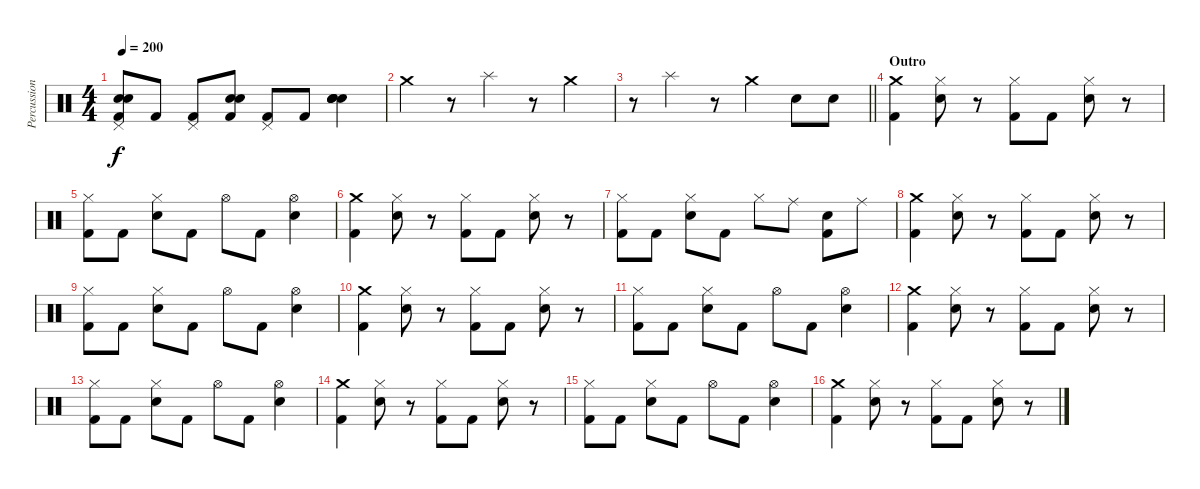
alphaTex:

\track ("Percussion" "Percussion") {instrument percussion}
\staff {score}
\articulation defaults
\ts (4 4)
\tempo 200
\clef neutral
\ks c
("Pedal Hi-Hat (hit)" "Snare (hit) 2" "Electric Snare (hit)" "Kick (hit) 2").8{dy f} "Kick (hit) 2".8 ("Pedal Hi-Hat (hit)" "Kick (hit) 2").8 ("Snare (hit) 2" "Electric Snare (hit)" "Kick (hit) 2").8 ("Pedal Hi-Hat (hit)" "Kick (hit) 2").8 "Kick (hit) 2".8 ("Snare (hit) 2" "Snare (hit) 2" "Electric Snare (hit)" "Snare (hit) 2").4 |
"Crash medium (hit)".4 r.8 "Splash (hit)".4 r.8 "Crash medium (hit)".4 |
\barLineRight lightlight
r.8 "Splash (hit)".4 r.8 "Crash medium (hit)".4 "Snare (hit) 2".8 "Snare (hit) 2".8 |
\section ("" "Outro")
("Crash medium (hit)" "Kick (hit) 2").4 ("Hi-Hat (closed)" "Snare (hit) 2").8 r.8 ("Hi-Hat (closed)" "Kick (hit) 2").8 "Kick (hit) 2".8 ("Hi-Hat (closed)" "Snare (hit) 2").8 r.8 |
("Hi-Hat (closed)" "Kick (hit) 2").8 "Kick (hit) 2".8 ("Hi-Hat (closed)" "Snare (hit) 2").8 "Kick (hit) 2".8 "Hi-Hat (open)".8 "Kick (hit) 2".8 ("Hi-Hat (open)" "Snare (hit) 2").4 |
("Crash medium (hit)" "Kick (hit) 2").4 ("Hi-Hat (closed)" "Snare (hit) 2").8 r.8 ("Hi-Hat (closed)" "Kick (hit) 2").8 "Kick (hit) 2".8 ("Hi-Hat (closed)" "Snare (hit) 2").8 r.8 |
("Hi-Hat (closed)" "Kick (hit) 2").8 "Kick (hit) 2".8 ("Hi-Hat (closed)" "Snare (hit) 2").8 "Kick (hit) 2".8 "Hi-Hat (closed)".8 "Ride (middle)".8 ("Snare (hit) 2" "Kick (hit) 2").8 "Ride (middle)".8 |
("Crash medium (hit)" "Kick (hit) 2").4 ("Hi-Hat (closed)" "Snare (hit) 2").8 r.8 ("Hi-Hat (closed)" "Kick (hit) 2").8 "Kick (hit) 2".8 ("Hi-Hat (closed)" "Snare (hit) 2").8 r.8 |
("Hi-Hat (closed)" "Kick (hit) 2").8 "Kick (hit) 2".8 ("Hi-Hat (closed)" "Snare (hit) 2").8 "Kick (hit) 2".8 "Hi-Hat (open)".8 "Kick (hit) 2".8 ("Hi-Hat (open)" "Snare (hit) 2").4 |
("Crash medium (hit)" "Kick (hit) 2").4 ("Hi-Hat (closed)" "Snare (hit) 2").8 r.8 ("Hi-Hat (closed)" "Kick (hit) 2").8 "Kick (hit) 2".8 ("Hi-Hat (closed)" "Snare (hit) 2").8 r.8 |
("Hi-Hat (closed)" "Kick (hit) 2").8 "Kick (hit) 2".8 ("Hi-Hat (closed)" "Snare (hit) 2").8 "Kick (hit) 2".8 "Hi-Hat (open)".8 "Kick (hit) 2".8 ("Hi-Hat (open)" "Snare (hit) 2").4 |
("Crash medium (hit)" "Kick (hit) 2").4 ("Hi-Hat (closed)" "Snare (hit) 2").8 r.8 ("Hi-Hat (closed)" "Kick (hit) 2").8 "Kick (hit) 2".8 ("Hi-Hat (closed)" "Snare (hit) 2").8 r.8 |
("Hi-Hat (closed)" "Kick (hit) 2").8 "Kick (hit) 2".8 ("Hi-Hat (closed)" "Snare (hit) 2").8 "Kick (hit) 2".8 "Hi-Hat (open)".8 "Kick (hit) 2".8 ("Hi-Hat (open)" "Snare (hit) 2").4 |
("Crash medium (hit)" "Kick (hit) 2").4 ("Hi-Hat (closed)" "Snare (hit) 2").8 r.8 ("Hi-Hat (closed)" "Kick (hit) 2").8 "Kick (hit) 2".8 ("Hi-Hat (closed)" "Snare (hit) 2").8 r.8 |
("Hi-Hat (closed)" "Kick (hit) 2").8 "Kick (hit) 2".8 ("Hi-Hat (closed)" "Snare (hit) 2").8 "Kick (hit) 2".8 "Hi-Hat (open)".8 "Kick (hit) 2".8 ("Hi-Hat (open)" "Snare (hit) 2").4 |
("Crash medium (hit)" "Kick (hit) 2").4 ("Hi-Hat (closed)" "Snare (hit) 2").8 r.8 ("Hi-Hat (closed)" "Kick (hit) 2").8 "Kick (hit) 2".8 ("Hi-Hat (closed)" "Snare (hit) 2").8 r.8
